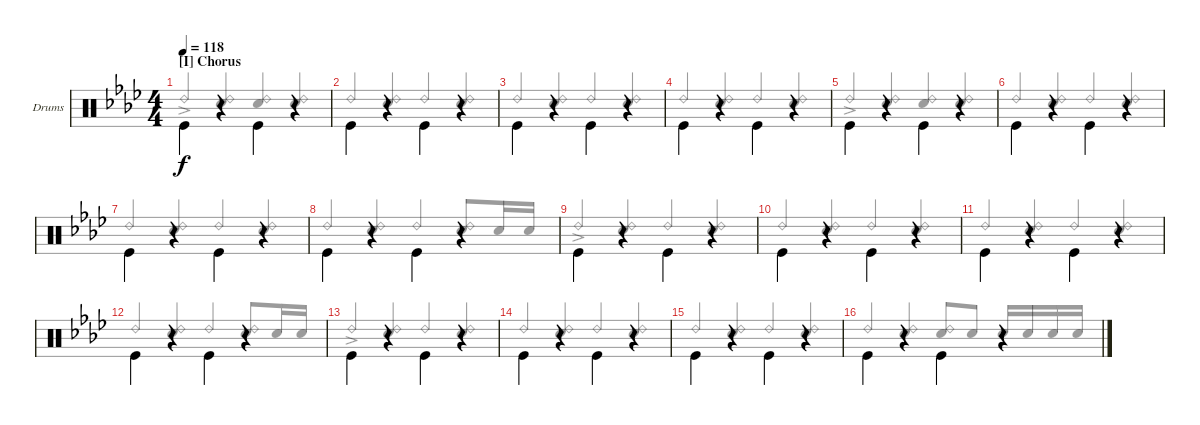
\bracketExtendMode groupsimilarinstruments
\firstSystemTrackNameOrientation horizontal
\otherSystemsTrackNameOrientation horizontal
\track ("Drums" "Drums") {instrument percussion}
\staff {score}
\articulation defaults
\voice
\ts (4 4)
\section ("I" "Chorus")
\tempo 118
\clef neutral
\scale
0.5
\ks ab "Kick (hit)".4{dy f beam invert}
r.4{beam invert} "Kick (hit)".4{beam invert} r.4{beam invert} |
\scale
0.5 "Kick (hit)".4{beam invert} r.4{beam invert} "Kick (hit)".4{beam invert} r.4{beam invert} |
\scale
0.5 "Kick (hit)".4{beam invert} r.4{beam invert} "Kick (hit)".4{beam invert} r.4{beam invert} |
\scale
0.5 "Kick (hit)".4{beam invert} r.4{beam invert} "Kick (hit)".4{beam invert} r.4{beam invert} |
\scale
0.5 "Kick (hit)".4{beam invert} r.4{beam invert} "Kick (hit)".4{beam invert} r.4{beam invert} |
\scale
0.5 "Kick (hit)".4{beam invert} r.4{beam invert} "Kick (hit)".4{beam invert} r.4{beam invert} |
\scale
0.5 "Kick (hit)".4{beam invert} r.4{beam invert} "Kick (hit)".4{beam invert} r.4{beam invert} |
\scale
0.5 "Kick (hit)".4{beam invert} r.4{beam invert} "Kick (hit)".4{beam invert} r.4{beam invert} |
\scale
0.5 "Kick (hit)".4{beam invert} r.4{beam invert} "Kick (hit)".4{beam invert} r.4{beam invert} |
\scale
0.5 "Kick (hit)".4{beam invert} r.4{beam invert} "Kick (hit)".4{beam invert} r.4{beam invert} |
\scale
0.5 "Kick (hit)".4{beam invert} r.4{beam invert} "Kick (hit)".4{beam invert} r.4{beam invert} |
\scale
0.5 "Kick (hit)".4{beam invert} r.4{beam invert} "Kick (hit)".4{beam invert} r.4{beam invert} |
\scale
0.5 "Kick (hit)".4{beam invert} r.4{beam invert} "Kick (hit)".4{beam invert} r.4{beam invert} |
\scale
0.5 "Kick (hit)".4{beam invert} r.4{beam invert} "Kick (hit)".4{beam invert} r.4{beam invert} |
\scale
0.5 "Kick (hit)".4{beam invert} r.4{beam invert} "Kick (hit)".4{beam invert} r.4{beam invert} |
\scale
0.5 "Kick (hit)".4{beam invert} r.4{beam invert} "Kick (hit)".4{beam invert} r.4{beam invert}
\voice
\clef neutral
\ottava regular
\simile none
\scale
0.5
\ks ab "Ride (bell) 2"{ac}.4{dy f beam invert}
("Snare (hit) 2" "Ride (bell) 2").4{beam invert} ("Snare (hit) 2" "Ride (bell) 2").4{beam invert} ("Snare (hit) 2" "Ride (bell) 2").4{beam invert} |
\scale
0.5 "Ride (bell) 2".4{beam invert} ("Snare (hit) 2" "Ride (bell) 2").4{beam invert} "Ride (bell) 2".4{beam invert} ("Snare (hit) 2" "Ride (bell) 2").4{beam invert} |
\scale
0.5 "Ride (bell) 2".4{beam invert} ("Snare (hit) 2" "Ride (bell) 2").4{beam invert} "Ride (bell) 2".4{beam invert} ("Snare (hit) 2" "Ride (bell) 2").4{beam invert} |
\scale
0.5 "Ride (bell) 2".4{beam invert} ("Snare (hit) 2" "Ride (bell) 2").4{beam invert} "Ride (bell) 2".4{beam invert} ("Snare (hit) 2" "Ride (bell) 2").4{beam invert} |
\scale
0.5 "Ride (bell) 2"{ac}.4{beam invert} ("Snare (hit) 2" "Ride (bell) 2").4{beam invert} ("Snare (hit) 2" "Ride (bell) 2").4{beam invert} ("Snare (hit) 2" "Ride (bell) 2").4{beam invert} |
\scale
0.5 "Ride (bell) 2".4{beam invert} ("Snare (hit) 2" "Ride (bell) 2").4{beam invert} "Ride (bell) 2".4{beam invert} ("Snare (hit) 2" "Ride (bell) 2").4{beam invert} |
\scale
0.5 "Ride (bell) 2".4{beam invert} ("Snare (hit) 2" "Ride (bell) 2").4{beam invert} "Ride (bell) 2".4{beam invert} ("Snare (hit) 2" "Ride (bell) 2").4{beam invert} |
\scale
0.5 "Ride (bell) 2".4{beam invert} ("Snare (hit) 2" "Ride (bell) 2").4{beam invert} "Ride (bell) 2".4{beam invert} ("Ride (bell) 2" "Snare (hit) 2").8{beam invert} "Snare (hit) 2".16 "Snare (hit) 2".16 |
\scale
0.5 "Ride (bell) 2"{ac}.4{beam invert} ("Snare (hit) 2" "Ride (bell) 2").4{beam invert} "Ride (bell) 2".4{beam invert} ("Snare (hit) 2" "Ride (bell) 2").4{beam invert} |
\scale
0.5 "Ride (bell) 2".4{beam invert} ("Snare (hit) 2" "Ride (bell) 2").4{beam invert} "Ride (bell) 2".4{beam invert} ("Snare (hit) 2" "Ride (bell) 2").4{beam invert} |
\scale
0.5 "Ride (bell) 2".4{beam invert} ("Snare (hit) 2" "Ride (bell) 2").4{beam invert} "Ride (bell) 2".4{beam invert} ("Snare (hit) 2" "Ride (bell) 2").4{beam invert} |
\scale
0.5 "Ride (bell) 2".4{beam invert} ("Snare (hit) 2" "Ride (bell) 2").4{beam invert} "Ride (bell) 2".4{beam invert} ("Ride (bell) 2" "Snare (hit) 2").8{beam invert} "Snare (hit) 2".16 "Snare (hit) 2".16 |
\scale
0.5 "Ride (bell) 2"{ac}.4{beam invert} ("Snare (hit) 2" "Ride (bell) 2").4{beam invert} "Ride (bell) 2".4{beam invert} ("Snare (hit) 2" "Ride (bell) 2").4{beam invert} |
\scale
0.5 "Ride (bell) 2".4{beam invert} ("Snare (hit) 2" "Ride (bell) 2").4{beam invert} "Ride (bell) 2".4{beam invert} ("Snare (hit) 2" "Ride (bell) 2").4{beam invert} |
\scale
0.5 "Ride (bell) 2".4{beam invert} ("Snare (hit) 2" "Ride (bell) 2").4{beam invert} "Ride (bell) 2".4{beam invert} ("Snare (hit) 2" "Ride (bell) 2").4{beam invert} |
\scale
0.5 "Ride (bell) 2".4{beam invert} ("Snare (hit) 2" "Ride (bell) 2").4{beam invert} ("Ride (bell) 2" "Snare (hit) 2").8{beam invert} "Snare (hit) 2".8 "Snare (hit) 2".16{beam invert} "Snare (hit) 2".16 "Snare (hit) 2".16 "Snare (hit) 2".16
